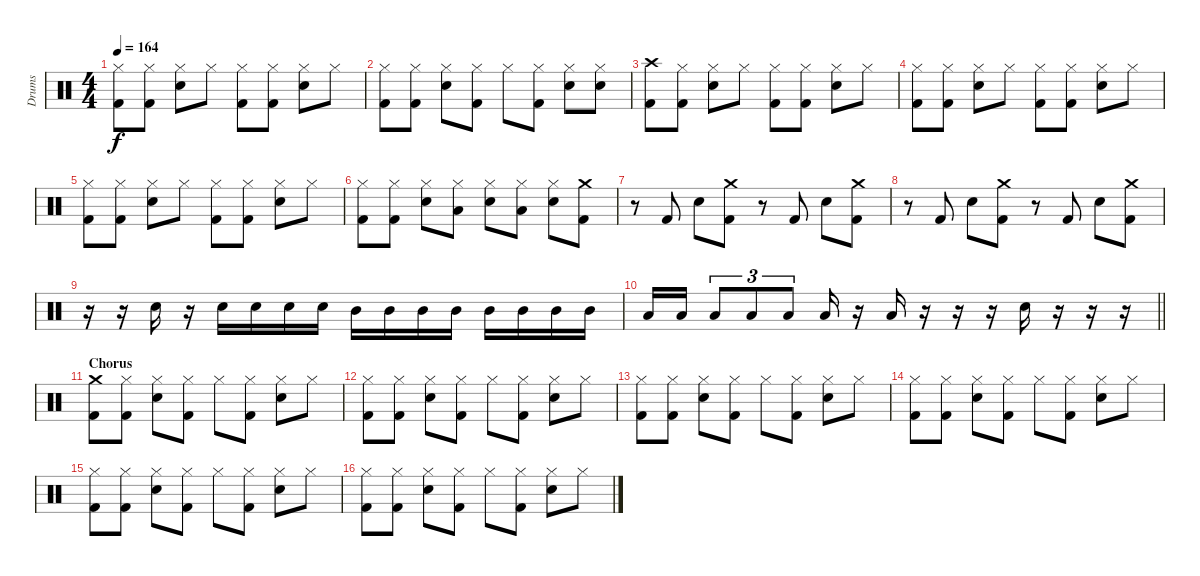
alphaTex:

\track ("Drums" "Drums") {instrument percussion}
\staff {score}
\articulation defaults
\ts (4 4)
\tempo 164
\clef neutral
\ks c
("Hi-Hat (closed)" "Kick (hit) 2").8{dy f} ("Hi-Hat (closed)" "Kick (hit) 2").8 ("Hi-Hat (closed)" "Snare (hit) 2").8 "Hi-Hat (closed)".8 ("Hi-Hat (closed)" "Kick (hit) 2").8 ("Hi-Hat (closed)" "Kick (hit) 2").8 ("Hi-Hat (closed)" "Snare (hit) 2").8 "Hi-Hat (closed)".8 |
("Hi-Hat (closed)" "Kick (hit) 2").8 ("Hi-Hat (closed)" "Kick (hit) 2").8 ("Hi-Hat (closed)" "Snare (hit) 2").8 ("Hi-Hat (closed)" "Kick (hit) 2").8 "Hi-Hat (closed)".8 ("Hi-Hat (closed)" "Kick (hit) 2").8 ("Hi-Hat (closed)" "Snare (hit) 2").8 ("Hi-Hat (closed)" "Snare (hit) 2").8 |
("Crash high (hit)" "Kick (hit) 2").8 ("Hi-Hat (closed)" "Kick (hit) 2").8 ("Hi-Hat (closed)" "Snare (hit) 2").8 "Hi-Hat (closed)".8 ("Hi-Hat (closed)" "Kick (hit) 2").8 ("Hi-Hat (closed)" "Kick (hit) 2").8 ("Hi-Hat (closed)" "Snare (hit) 2").8 "Hi-Hat (closed)".8 |
("Hi-Hat (closed)" "Kick (hit) 2").8 ("Hi-Hat (closed)" "Kick (hit) 2").8 ("Hi-Hat (closed)" "Snare (hit) 2").8 "Hi-Hat (closed)".8 ("Hi-Hat (closed)" "Kick (hit) 2").8 ("Hi-Hat (closed)" "Kick (hit) 2").8 ("Hi-Hat (closed)" "Snare (hit) 2").8 "Hi-Hat (closed)".8 |
("Hi-Hat (closed)" "Kick (hit) 2").8 ("Hi-Hat (closed)" "Kick (hit) 2").8 ("Hi-Hat (closed)" "Snare (hit) 2").8 "Hi-Hat (closed)".8 ("Hi-Hat (closed)" "Kick (hit) 2").8 ("Hi-Hat (closed)" "Kick (hit) 2").8 ("Hi-Hat (closed)" "Snare (hit) 2").8 "Hi-Hat (closed)".8 |
("Hi-Hat (closed)" "Kick (hit) 2").8 ("Hi-Hat (closed)" "Kick (hit) 2").8 ("Hi-Hat (closed)" "Snare (hit) 2").8 ("Hi-Hat (closed)" "Low Tom (hit)").8 ("Hi-Hat (closed)" "Snare (hit) 2").8 ("Hi-Hat (closed)" "Low Tom (hit)").8 ("Hi-Hat (closed)" "Snare (hit) 2").8 ("Crash medium (hit)" "Kick (hit) 2").8 |
r.8 "Kick (hit) 2".8 "Snare (hit) 2".8 ("Crash medium (hit)" "Kick (hit) 2").8 r.8 "Kick (hit) 2".8 "Snare (hit) 2".8 ("Crash medium (hit)" "Kick (hit) 2").8 |
r.8 "Kick (hit) 2".8 "Snare (hit) 2".8 ("Crash medium (hit)" "Kick (hit) 2").8 r.8 "Kick (hit) 2".8 "Snare (hit) 2".8 ("Crash medium (hit)" "Kick (hit) 2").8 |
r.16 r.16 "Snare (hit) 2".16 r.16 "Snare (hit) 2".16 "Snare (hit) 2".16 "Snare (hit) 2".16 "Snare (hit) 2".16 "Mid Tom (hit)".16 "Mid Tom (hit)".16 "Mid Tom (hit)".16 "Mid Tom (hit)".16 "Mid Tom (hit)".16 "Mid Tom (hit)".16 "Mid Tom (hit)".16 "Mid Tom (hit)".16 |
\barLineRight lightlight "Low Tom (hit)".16 "Low Tom (hit)".16 "Low Tom (hit)".8{tu (3 2)} "Low Tom (hit)".8{tu (3 2)} "Low Tom (hit)".8{tu (3 2)} "Low Tom (hit)".16
r.16 "Low Floor Tom (hit)".16 r.16 r.16 r.16 "Snare (hit) 2".16 r.16 r.16 r.16 |
\section ("" "Chorus")
("Crash medium (hit)" "Kick (hit) 2").8 ("Hi-Hat (closed)" "Kick (hit) 2").8 ("Hi-Hat (closed)" "Snare (hit) 2").8 ("Hi-Hat (closed)" "Kick (hit) 2").8 "Hi-Hat (closed)".8 ("Hi-Hat (closed)" "Kick (hit) 2").8 ("Hi-Hat (closed)" "Snare (hit) 2").8 "Hi-Hat (closed)".8 |
("Hi-Hat (closed)" "Kick (hit) 2").8 ("Hi-Hat (closed)" "Kick (hit) 2").8 ("Hi-Hat (closed)" "Snare (hit) 2").8 ("Hi-Hat (closed)" "Kick (hit) 2").8 "Hi-Hat (closed)".8 ("Hi-Hat (closed)" "Kick (hit) 2").8 ("Hi-Hat (closed)" "Snare (hit) 2").8 "Hi-Hat (closed)".8 |
("Hi-Hat (closed)" "Kick (hit) 2").8 ("Hi-Hat (closed)" "Kick (hit) 2").8 ("Hi-Hat (closed)" "Snare (hit) 2").8 ("Hi-Hat (closed)" "Kick (hit) 2").8 "Hi-Hat (closed)".8 ("Hi-Hat (closed)" "Kick (hit) 2").8 ("Hi-Hat (closed)" "Snare (hit) 2").8 "Hi-Hat (closed)".8 |
("Hi-Hat (closed)" "Kick (hit) 2").8 ("Hi-Hat (closed)" "Kick (hit) 2").8 ("Hi-Hat (closed)" "Snare (hit) 2").8 ("Hi-Hat (closed)" "Kick (hit) 2").8 "Hi-Hat (closed)".8 ("Hi-Hat (closed)" "Kick (hit) 2").8 ("Hi-Hat (closed)" "Snare (hit) 2").8 "Hi-Hat (closed)".8 |
("Hi-Hat (closed)" "Kick (hit) 2").8 ("Hi-Hat (closed)" "Kick (hit) 2").8 ("Hi-Hat (closed)" "Snare (hit) 2").8 ("Hi-Hat (closed)" "Kick (hit) 2").8 "Hi-Hat (closed)".8 ("Hi-Hat (closed)" "Kick (hit) 2").8 ("Hi-Hat (closed)" "Snare (hit) 2").8 "Hi-Hat (closed)".8 |
("Hi-Hat (closed)" "Kick (hit) 2").8 ("Hi-Hat (closed)" "Kick (hit) 2").8 ("Hi-Hat (closed)" "Snare (hit) 2").8 ("Hi-Hat (closed)" "Kick (hit) 2").8 "Hi-Hat (closed)".8 ("Hi-Hat (closed)" "Kick (hit) 2").8 ("Hi-Hat (closed)" "Snare (hit) 2").8 "Hi-Hat (closed)".8
